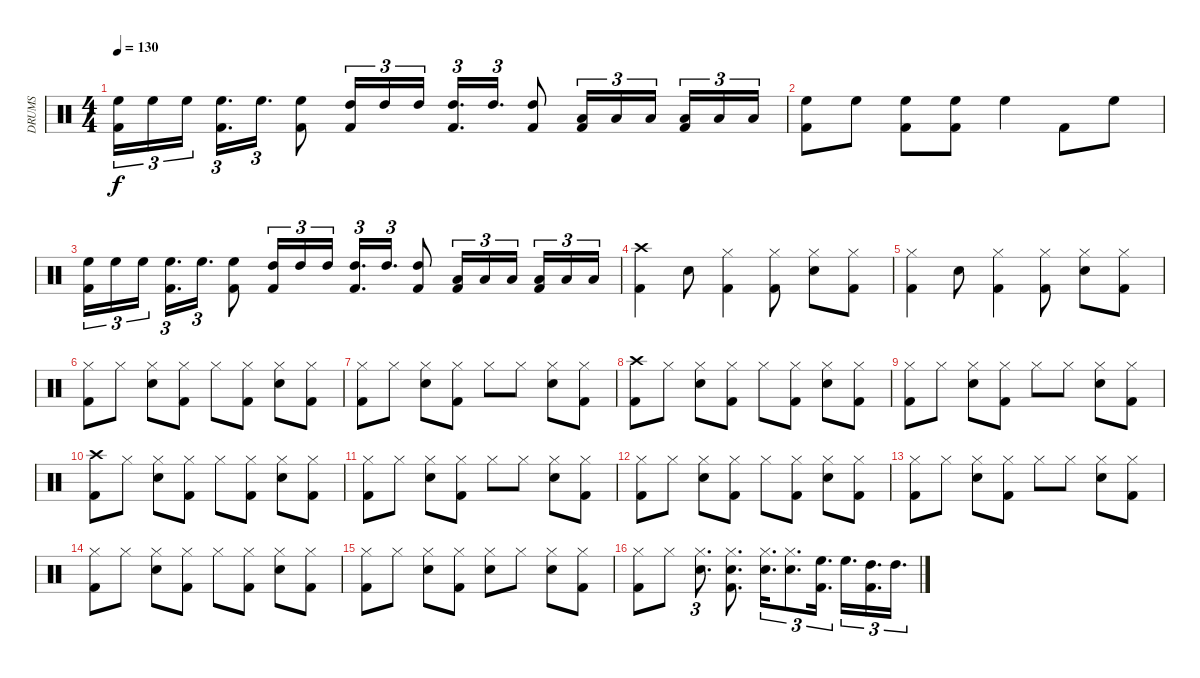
\track ("DRUMS" "DRUMS") {instrument percussion}
\staff {score}
\articulation defaults
\ts (4 4)
\tempo 130
\clef neutral
\ks c
("High Floor Tom (hit)" "Kick (hit) 2").16{tu (3 2) dy f balance 1} "High Floor Tom (hit)".16{tu (3 2)} "High Floor Tom (hit)".16{tu (3 2)} ("High Floor Tom (hit)" "Kick (hit) 2").16{d tu (3 2)} "High Floor Tom (hit)".16{d tu (3 2)} ("High Floor Tom (hit)" "Kick (hit) 2").8 ("High Tom (hit)" "Kick (hit) 2").16{tu (3 2) balance 8} "High Tom (hit)".16{tu (3 2)} "High Tom (hit)".16{tu (3 2)} ("High Tom (hit)" "Kick (hit) 2").16{d tu (3 2)} "High Tom (hit)".16{d tu (3 2)} ("High Tom (hit)" "Kick (hit) 2").8 ("Low Tom (hit)" "Kick (hit) 2").16{tu (3 2) balance 16} "Low Tom (hit)".16{tu (3 2)} "Low Tom (hit)".16{tu (3 2)} ("Low Tom (hit)" "Kick (hit) 2").16{tu (3 2)} "Low Tom (hit)".16{tu (3 2)} "Low Tom (hit)".16{tu (3 2)} |
("High Floor Tom (hit)" "Kick (hit) 2").8{balance 8} "High Floor Tom (hit)".8 ("High Floor Tom (hit)" "Kick (hit) 2").8 ("High Floor Tom (hit)" "Kick (hit) 2").8 "High Floor Tom (hit)".4 "Kick (hit) 2".8 "High Floor Tom (hit)".8 |
("High Floor Tom (hit)" "Kick (hit) 2").16{tu (3 2) balance 1} "High Floor Tom (hit)".16{tu (3 2)} "High Floor Tom (hit)".16{tu (3 2)} ("High Floor Tom (hit)" "Kick (hit) 2").16{d tu (3 2)} "High Floor Tom (hit)".16{d tu (3 2)} ("High Floor Tom (hit)" "Kick (hit) 2").8 ("High Tom (hit)" "Kick (hit) 2").16{tu (3 2) balance 8} "High Tom (hit)".16{tu (3 2)} "High Tom (hit)".16{tu (3 2)} ("High Tom (hit)" "Kick (hit) 2").16{d tu (3 2)} "High Tom (hit)".16{d tu (3 2)} ("High Tom (hit)" "Kick (hit) 2").8 ("Low Tom (hit)" "Kick (hit) 2").16{tu (3 2) balance 16} "Low Tom (hit)".16{tu (3 2)} "Low Tom (hit)".16{tu (3 2)} ("Low Tom (hit)" "Kick (hit) 2").16{tu (3 2)} "Low Tom (hit)".16{tu (3 2)} "Low Tom (hit)".16{tu (3 2)} |
("Crash high (hit)" "Kick (hit) 2").4 "Snare (hit) 2".8 ("Hi-Hat (closed)" "Kick (hit) 2").4 ("Hi-Hat (closed)" "Kick (hit) 2").8 ("Hi-Hat (closed)" "Snare (hit) 2").8 ("Hi-Hat (closed)" "Kick (hit) 2").8 |
("Hi-Hat (closed)" "Kick (hit) 2").4 "Snare (hit) 2".8 ("Hi-Hat (closed)" "Kick (hit) 2").4 ("Hi-Hat (closed)" "Kick (hit) 2").8 ("Hi-Hat (closed)" "Snare (hit) 2").8 ("Hi-Hat (closed)" "Kick (hit) 2").8 |
("Hi-Hat (closed)" "Kick (hit) 2").8 "Hi-Hat (closed)".8 ("Hi-Hat (closed)" "Snare (hit) 2").8 ("Hi-Hat (closed)" "Kick (hit) 2").8 "Hi-Hat (closed)".8 ("Hi-Hat (closed)" "Kick (hit) 2").8 ("Hi-Hat (closed)" "Snare (hit) 2").8 ("Hi-Hat (closed)" "Kick (hit) 2").8 |
("Hi-Hat (closed)" "Kick (hit) 2").8 "Hi-Hat (closed)".8 ("Hi-Hat (closed)" "Snare (hit) 2").8 ("Hi-Hat (closed)" "Kick (hit) 2").8 "Hi-Hat (closed)".8 "Hi-Hat (closed)".8 ("Hi-Hat (closed)" "Snare (hit) 2").8 ("Hi-Hat (closed)" "Kick (hit) 2").8 |
("Crash high (hit)" "Kick (hit) 2").8 "Hi-Hat (closed)".8 ("Hi-Hat (closed)" "Snare (hit) 2").8 ("Hi-Hat (closed)" "Kick (hit) 2").8 "Hi-Hat (closed)".8 ("Hi-Hat (closed)" "Kick (hit) 2").8 ("Hi-Hat (closed)" "Snare (hit) 2").8 ("Hi-Hat (closed)" "Kick (hit) 2").8 |
("Hi-Hat (closed)" "Kick (hit) 2").8 "Hi-Hat (closed)".8 ("Hi-Hat (closed)" "Snare (hit) 2").8 ("Hi-Hat (closed)" "Kick (hit) 2").8 "Hi-Hat (closed)".8 "Hi-Hat (closed)".8 ("Hi-Hat (closed)" "Snare (hit) 2").8 ("Hi-Hat (closed)" "Kick (hit) 2").8 |
("Crash high (hit)" "Kick (hit) 2").8 "Hi-Hat (closed)".8 ("Hi-Hat (closed)" "Snare (hit) 2").8 ("Hi-Hat (closed)" "Kick (hit) 2").8 "Hi-Hat (closed)".8 ("Hi-Hat (closed)" "Kick (hit) 2").8 ("Hi-Hat (closed)" "Snare (hit) 2").8 ("Hi-Hat (closed)" "Kick (hit) 2").8 |
("Hi-Hat (closed)" "Kick (hit) 2").8 "Hi-Hat (closed)".8 ("Hi-Hat (closed)" "Snare (hit) 2").8 ("Hi-Hat (closed)" "Kick (hit) 2").8 "Hi-Hat (closed)".8 "Hi-Hat (closed)".8 ("Hi-Hat (closed)" "Snare (hit) 2").8 ("Hi-Hat (closed)" "Kick (hit) 2").8 |
("Hi-Hat (closed)" "Kick (hit) 2").8 "Hi-Hat (closed)".8 ("Hi-Hat (closed)" "Snare (hit) 2").8 ("Hi-Hat (closed)" "Kick (hit) 2").8 "Hi-Hat (closed)".8 ("Hi-Hat (closed)" "Kick (hit) 2").8 ("Hi-Hat (closed)" "Snare (hit) 2").8 ("Hi-Hat (closed)" "Kick (hit) 2").8 |
("Hi-Hat (closed)" "Kick (hit) 2").8 "Hi-Hat (closed)".8 ("Hi-Hat (closed)" "Snare (hit) 2").8 ("Hi-Hat (closed)" "Kick (hit) 2").8 "Hi-Hat (closed)".8 "Hi-Hat (closed)".8 ("Hi-Hat (closed)" "Snare (hit) 2").8 ("Hi-Hat (closed)" "Kick (hit) 2").8 |
("Hi-Hat (closed)" "Kick (hit) 2").8 "Hi-Hat (closed)".8 ("Hi-Hat (closed)" "Snare (hit) 2").8 ("Hi-Hat (closed)" "Kick (hit) 2").8 "Hi-Hat (closed)".8 ("Hi-Hat (closed)" "Kick (hit) 2").8 ("Hi-Hat (closed)" "Snare (hit) 2").8 ("Hi-Hat (closed)" "Kick (hit) 2").8 |
("Hi-Hat (closed)" "Kick (hit) 2").8 "Hi-Hat (closed)".8 ("Hi-Hat (closed)" "Snare (hit) 2").8 ("Hi-Hat (closed)" "Kick (hit) 2").8 ("Hi-Hat (closed)" "Snare (hit) 2").8 "Hi-Hat (closed)".8 ("Hi-Hat (closed)" "Snare (hit) 2").8 ("Hi-Hat (closed)" "Kick (hit) 2").8 |
("Hi-Hat (closed)" "Kick (hit) 2").8 "Hi-Hat (closed)".8 ("Hi-Hat (closed)" "Snare (hit) 2").8{d tu (3 2)} ("Hi-Hat (closed)" "Snare (hit) 2" "Kick (hit) 2").8{d} ("Hi-Hat (closed)" "Snare (hit) 2").16{d tu (3 2)} ("Hi-Hat (closed)" "Snare (hit) 2").8{d tu (3 2)} ("High Floor Tom (hit)" "Kick (hit) 2").16{d tu (3 2) balance 0} "High Floor Tom (hit)".16{d tu (3 2)} ("High Tom (hit)" "Kick (hit) 2").16{d tu (3 2) balance 16} "High Tom (hit)".16{d tu (3 2)}
